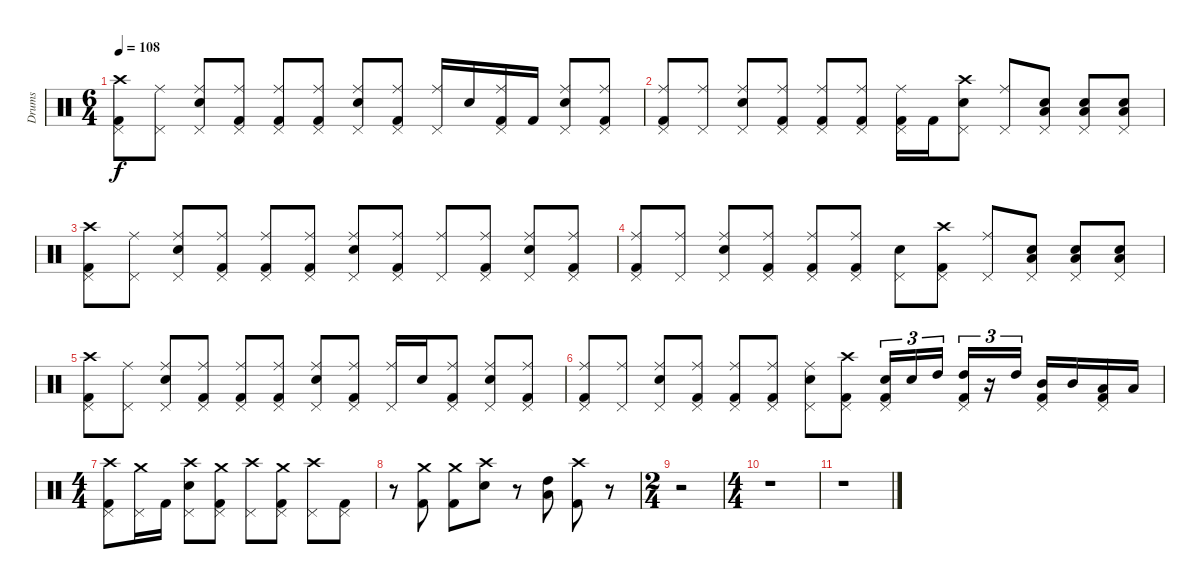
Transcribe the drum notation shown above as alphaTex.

\track ("Drums" "Drums") {instrument percussion}
\staff {score}
\articulation defaults
\ts (6 4)
\tempo 108
\clef neutral
\ks c
("Crash high (hit)" "Pedal Hi-Hat (hit)" "Kick (hit) 2").8{dy f} ("Ride (middle)" "Pedal Hi-Hat (hit)").8 ("Ride (middle)" "Pedal Hi-Hat (hit)" "Electric Snare (hit)").8 ("Ride (middle)" "Pedal Hi-Hat (hit)" "Kick (hit) 2").8 ("Ride (middle)" "Pedal Hi-Hat (hit)" "Kick (hit) 2").8 ("Ride (middle)" "Pedal Hi-Hat (hit)" "Kick (hit) 2").8 ("Ride (middle)" "Pedal Hi-Hat (hit)" "Electric Snare (hit)").8 ("Ride (middle)" "Pedal Hi-Hat (hit)" "Kick (hit) 2").8 ("Ride (middle)" "Pedal Hi-Hat (hit)").16 "Electric Snare (hit)".16 ("Ride (middle)" "Pedal Hi-Hat (hit)" "Kick (hit) 2").16 "Kick (hit) 2".16 ("Ride (middle)" "Pedal Hi-Hat (hit)" "Electric Snare (hit)").8 ("Ride (middle)" "Pedal Hi-Hat (hit)" "Kick (hit) 2").8 |
("Ride (middle)" "Pedal Hi-Hat (hit)" "Kick (hit) 2").8 ("Ride (middle)" "Pedal Hi-Hat (hit)").8 ("Ride (middle)" "Pedal Hi-Hat (hit)" "Electric Snare (hit)").8 ("Ride (middle)" "Pedal Hi-Hat (hit)" "Kick (hit) 2").8 ("Ride (middle)" "Pedal Hi-Hat (hit)" "Kick (hit) 2").8 ("Ride (middle)" "Pedal Hi-Hat (hit)" "Kick (hit) 2").8 ("Ride (middle)" "Pedal Hi-Hat (hit)" "Kick (hit) 2").16 "Kick (hit) 2".16 ("Crash high (hit)" "Pedal Hi-Hat (hit)" "Electric Snare (hit)").8 ("Ride (middle)" "Pedal Hi-Hat (hit)").8 ("Pedal Hi-Hat (hit)" "Low Tom (hit)" "Electric Snare (hit)").8 ("Pedal Hi-Hat (hit)" "Low Tom (hit)" "Electric Snare (hit)").8 ("Pedal Hi-Hat (hit)" "Low Tom (hit)" "Electric Snare (hit)").8 |
("Crash high (hit)" "Pedal Hi-Hat (hit)" "Kick (hit) 2").8 ("Ride (middle)" "Pedal Hi-Hat (hit)").8 ("Ride (middle)" "Pedal Hi-Hat (hit)" "Electric Snare (hit)").8 ("Ride (middle)" "Pedal Hi-Hat (hit)" "Kick (hit) 2").8 ("Ride (middle)" "Pedal Hi-Hat (hit)" "Kick (hit) 2").8 ("Ride (middle)" "Pedal Hi-Hat (hit)" "Kick (hit) 2").8 ("Ride (middle)" "Pedal Hi-Hat (hit)" "Electric Snare (hit)").8 ("Ride (middle)" "Pedal Hi-Hat (hit)" "Kick (hit) 2").8 ("Ride (middle)" "Pedal Hi-Hat (hit)").8 ("Ride (middle)" "Pedal Hi-Hat (hit)" "Kick (hit) 2").8 ("Ride (middle)" "Pedal Hi-Hat (hit)" "Electric Snare (hit)").8 ("Ride (middle)" "Pedal Hi-Hat (hit)" "Kick (hit) 2").8 |
("Ride (middle)" "Pedal Hi-Hat (hit)" "Kick (hit) 2").8 ("Ride (middle)" "Pedal Hi-Hat (hit)").8 ("Ride (middle)" "Pedal Hi-Hat (hit)" "Electric Snare (hit)").8 ("Ride (middle)" "Pedal Hi-Hat (hit)" "Kick (hit) 2").8 ("Ride (middle)" "Pedal Hi-Hat (hit)" "Kick (hit) 2").8 ("Ride (middle)" "Pedal Hi-Hat (hit)" "Kick (hit) 2").8 ("Pedal Hi-Hat (hit)" "Electric Snare (hit)").8 ("Crash high (hit)" "Pedal Hi-Hat (hit)" "Kick (hit) 2").8 ("Ride (middle)" "Pedal Hi-Hat (hit)").8 ("Pedal Hi-Hat (hit)" "Low Tom (hit)" "Electric Snare (hit)").8 ("Pedal Hi-Hat (hit)" "Low Tom (hit)" "Electric Snare (hit)").8 ("Pedal Hi-Hat (hit)" "Low Tom (hit)" "Electric Snare (hit)").8 |
("Crash high (hit)" "Pedal Hi-Hat (hit)" "Kick (hit) 2").8 ("Ride (middle)" "Pedal Hi-Hat (hit)").8 ("Ride (middle)" "Pedal Hi-Hat (hit)" "Electric Snare (hit)").8 ("Ride (middle)" "Pedal Hi-Hat (hit)" "Kick (hit) 2").8 ("Ride (middle)" "Pedal Hi-Hat (hit)" "Kick (hit) 2").8 ("Ride (middle)" "Pedal Hi-Hat (hit)" "Kick (hit) 2").8 ("Ride (middle)" "Pedal Hi-Hat (hit)" "Electric Snare (hit)").8 ("Ride (middle)" "Pedal Hi-Hat (hit)" "Kick (hit) 2").8 ("Ride (middle)" "Pedal Hi-Hat (hit)").16 "Electric Snare (hit)".16 ("Ride (middle)" "Pedal Hi-Hat (hit)" "Kick (hit) 2").8 ("Ride (middle)" "Pedal Hi-Hat (hit)" "Electric Snare (hit)").8 ("Ride (middle)" "Pedal Hi-Hat (hit)" "Kick (hit) 2").8 |
("Ride (middle)" "Pedal Hi-Hat (hit)" "Kick (hit) 2").8 ("Ride (middle)" "Pedal Hi-Hat (hit)").8 ("Ride (middle)" "Pedal Hi-Hat (hit)" "Electric Snare (hit)").8 ("Ride (middle)" "Pedal Hi-Hat (hit)" "Kick (hit) 2").8 ("Ride (middle)" "Pedal Hi-Hat (hit)" "Kick (hit) 2").8 ("Ride (middle)" "Pedal Hi-Hat (hit)" "Kick (hit) 2").8 ("Ride (middle)" "Pedal Hi-Hat (hit)" "Electric Snare (hit)").8 ("Crash high (hit)" "Pedal Hi-Hat (hit)" "Kick (hit) 2").8 ("Pedal Hi-Hat (hit)" "Electric Snare (hit)" "Kick (hit) 2").16{tu (3 2)} "Electric Snare (hit)".16{tu (3 2)} "High Tom (hit)".16{tu (3 2)} ("Pedal Hi-Hat (hit)" "High Tom (hit)" "Kick (hit) 2").16{tu (3 2)} r.16{tu (3 2)} "High Tom (hit)".16{tu (3 2)} ("Pedal Hi-Hat (hit)" "Mid Tom (hit)" "Kick (hit) 2").16 "Mid Tom (hit)".16 ("Pedal Hi-Hat (hit)" "Low Tom (hit)" "Kick (hit) 2").16 "Low Tom (hit)".16 |
\ts (4 4)
("Crash high (hit)" "Pedal Hi-Hat (hit)" "Kick (hit) 2").8 ("Crash medium (hit)" "Pedal Hi-Hat (hit)").16 "Kick (hit) 2".16 ("Crash high (hit)" "Pedal Hi-Hat (hit)" "Electric Snare (hit)").8 ("Crash medium (hit)" "Pedal Hi-Hat (hit)" "Kick (hit) 2").8 ("Crash high (hit)" "Pedal Hi-Hat (hit)").8 ("Crash medium (hit)" "Pedal Hi-Hat (hit)" "Kick (hit) 2").8 ("Crash high (hit)" "Pedal Hi-Hat (hit)").8 ("Pedal Hi-Hat (hit)" "Kick (hit) 2").8 |
r.8 ("Crash medium (hit)" "Kick (hit) 2").8 ("Crash medium (hit)" "Kick (hit) 2").8 ("Crash high (hit)" "Electric Snare (hit)").8 r.8 ("High Tom (hit)" "Low Tom (hit)").8 ("Crash high (hit)" "Kick (hit) 2").8 r.8 |
\ts (2 4)
r.2 |
\ts (4 4)
r.1 |
r.1
